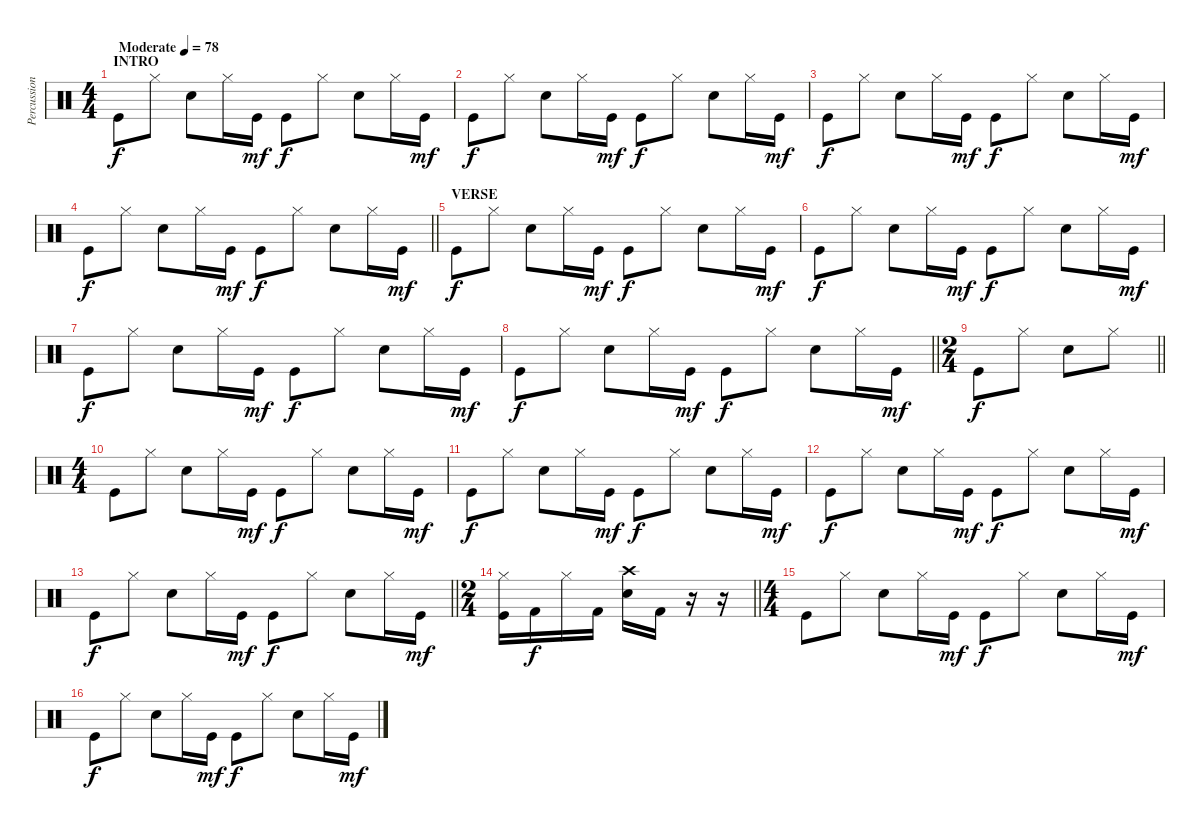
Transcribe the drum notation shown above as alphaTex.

\track ("Percussion" "Percussion") {instrument percussion}
\staff {score}
\articulation defaults
\ts (4 4)
\section ("" "INTRO")
\tempo (78 "Moderate")
\clef neutral
\ks c "Kick (hit)".8{dy f} "Hi-Hat (closed)".8 "Electric Snare (hit)".8 "Hi-Hat (closed)".16 "Kick (hit)".16{dy mf} "Kick (hit)".8{dy f} "Hi-Hat (closed)".8 "Electric Snare (hit)".8 "Hi-Hat (closed)".16 "Kick (hit)".16{dy mf}
|
"Kick (hit)".8{dy f} "Hi-Hat (closed)".8 "Electric Snare (hit)".8 "Hi-Hat (closed)".16 "Kick (hit)".16{dy mf} "Kick (hit)".8{dy f} "Hi-Hat (closed)".8 "Electric Snare (hit)".8 "Hi-Hat (closed)".16 "Kick (hit)".16{dy mf} |
"Kick (hit)".8{dy f} "Hi-Hat (closed)".8 "Electric Snare (hit)".8 "Hi-Hat (closed)".16 "Kick (hit)".16{dy mf} "Kick (hit)".8{dy f} "Hi-Hat (closed)".8 "Electric Snare (hit)".8 "Hi-Hat (closed)".16 "Kick (hit)".16{dy mf} |
\barLineRight lightlight "Kick (hit)".8{dy f} "Hi-Hat (closed)".8 "Electric Snare (hit)".8 "Hi-Hat (closed)".16 "Kick (hit)".16{dy mf} "Kick (hit)".8{dy f} "Hi-Hat (closed)".8 "Electric Snare (hit)".8 "Hi-Hat (closed)".16 "Kick (hit)".16{dy mf}
|
\section ("" "VERSE")
"Kick (hit)".8{dy f} "Hi-Hat (closed)".8 "Electric Snare (hit)".8 "Hi-Hat (closed)".16 "Kick (hit)".16{dy mf} "Kick (hit)".8{dy f} "Hi-Hat (closed)".8 "Electric Snare (hit)".8 "Hi-Hat (closed)".16 "Kick (hit)".16{dy mf} |
"Kick (hit)".8{dy f} "Hi-Hat (closed)".8 "Electric Snare (hit)".8 "Hi-Hat (closed)".16 "Kick (hit)".16{dy mf} "Kick (hit)".8{dy f} "Hi-Hat (closed)".8 "Electric Snare (hit)".8 "Hi-Hat (closed)".16 "Kick (hit)".16{dy mf} |
"Kick (hit)".8{dy f} "Hi-Hat (closed)".8 "Electric Snare (hit)".8 "Hi-Hat (closed)".16 "Kick (hit)".16{dy mf} "Kick (hit)".8{dy f} "Hi-Hat (closed)".8 "Electric Snare (hit)".8 "Hi-Hat (closed)".16 "Kick (hit)".16{dy mf} |
\barLineRight lightlight "Kick (hit)".8{dy f} "Hi-Hat (closed)".8 "Electric Snare (hit)".8 "Hi-Hat (closed)".16 "Kick (hit)".16{dy mf} "Kick (hit)".8{dy f} "Hi-Hat (closed)".8 "Electric Snare (hit)".8 "Hi-Hat (closed)".16 "Kick (hit)".16{dy mf}
|
\ts (2 4)
\barLineRight lightlight "Kick (hit)".8{dy f} "Hi-Hat (closed)".8 "Electric Snare (hit)".8 "Hi-Hat (closed)".8
|
\ts (4 4)
"Kick (hit)".8 "Hi-Hat (closed)".8 "Electric Snare (hit)".8 "Hi-Hat (closed)".16 "Kick (hit)".16{dy mf} "Kick (hit)".8{dy f} "Hi-Hat (closed)".8 "Electric Snare (hit)".8 "Hi-Hat (closed)".16 "Kick (hit)".16{dy mf} |
"Kick (hit)".8{dy f} "Hi-Hat (closed)".8 "Electric Snare (hit)".8 "Hi-Hat (closed)".16 "Kick (hit)".16{dy mf} "Kick (hit)".8{dy f} "Hi-Hat (closed)".8 "Electric Snare (hit)".8 "Hi-Hat (closed)".16 "Kick (hit)".16{dy mf} |
"Kick (hit)".8{dy f} "Hi-Hat (closed)".8 "Electric Snare (hit)".8 "Hi-Hat (closed)".16 "Kick (hit)".16{dy mf} "Kick (hit)".8{dy f} "Hi-Hat (closed)".8 "Electric Snare (hit)".8 "Hi-Hat (closed)".16 "Kick (hit)".16{dy mf} |
\barLineRight lightlight "Kick (hit)".8{dy f} "Hi-Hat (closed)".8 "Electric Snare (hit)".8 "Hi-Hat (closed)".16 "Kick (hit)".16{dy mf} "Kick (hit)".8{dy f} "Hi-Hat (closed)".8 "Electric Snare (hit)".8 "Hi-Hat (closed)".16 "Kick (hit)".16{dy mf}
|
\ts (2 4)
\barLineRight lightlight
("Kick (hit)" "Hi-Hat (closed)").16 "Kick (hit) 2".16{dy f} "Hi-Hat (closed)".16 "Kick (hit) 2".16 ("Crash high (hit)" "Snare (hit) 2").16 "Kick (hit) 2".16 r.16 r.16 |
\ts (4 4)
"Kick (hit)".8 "Hi-Hat (closed)".8 "Electric Snare (hit)".8 "Hi-Hat (closed)".16 "Kick (hit)".16{dy mf} "Kick (hit)".8{dy f} "Hi-Hat (closed)".8 "Electric Snare (hit)".8 "Hi-Hat (closed)".16 "Kick (hit)".16{dy mf} |
"Kick (hit)".8{dy f} "Hi-Hat (closed)".8 "Electric Snare (hit)".8 "Hi-Hat (closed)".16 "Kick (hit)".16{dy mf} "Kick (hit)".8{dy f} "Hi-Hat (closed)".8 "Electric Snare (hit)".8 "Hi-Hat (closed)".16 "Kick (hit)".16{dy mf}
